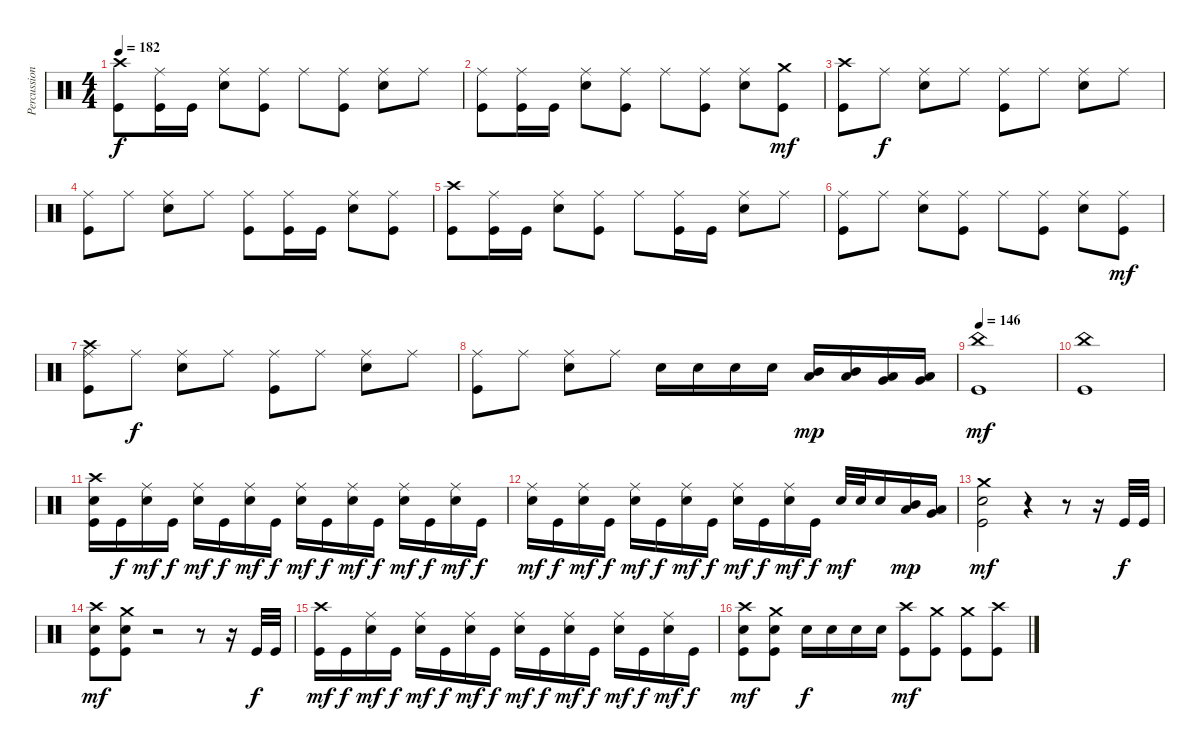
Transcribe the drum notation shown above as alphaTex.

\track ("Percussions" "Percussion") {instrument percussion}
\staff {score}
\articulation defaults
\ts (4 4)
\tempo 182
\clef neutral
\ks c
("Kick (hit)" "Crash high (hit)").8{dy f} ("Kick (hit)" "Ride (middle)").16 "Kick (hit)".16 ("Electric Snare (hit)" "Ride (middle)").8 ("Kick (hit)" "Ride (middle)").8 "Ride (middle)".8 ("Kick (hit)" "Ride (middle)").8 ("Electric Snare (hit)" "Ride (middle)").8 "Ride (middle)".8 |
("Kick (hit)" "Ride (middle)").8 ("Kick (hit)" "Ride (middle)").16 "Kick (hit)".16 ("Electric Snare (hit)" "Ride (middle)").8 ("Kick (hit)" "Ride (middle)").8 "Ride (middle)".8 ("Kick (hit)" "Ride (middle)").8 ("Electric Snare (hit)" "Ride (middle)").8 ("Kick (hit)" "Crash medium (hit)").8{dy mf} |
("Kick (hit)" "Crash high (hit)").8 "Ride (middle)".8{dy f} ("Electric Snare (hit)" "Ride (middle)").8 "Ride (middle)".8 ("Kick (hit)" "Ride (middle)").8 "Ride (middle)".8 ("Electric Snare (hit)" "Ride (middle)").8 "Ride (middle)".8 |
("Kick (hit)" "Ride (middle)").8 "Ride (middle)".8 ("Electric Snare (hit)" "Ride (middle)").8 "Ride (middle)".8 ("Kick (hit)" "Ride (middle)").8 ("Kick (hit)" "Ride (middle)").16 "Kick (hit)".16 ("Electric Snare (hit)" "Ride (middle)").8 ("Kick (hit)" "Ride (middle)").8 |
("Kick (hit)" "Crash high (hit)").8 ("Kick (hit)" "Ride (middle)").16 "Kick (hit)".16 ("Electric Snare (hit)" "Ride (middle)").8 ("Kick (hit)" "Ride (middle)").8 "Ride (middle)".8 ("Kick (hit)" "Ride (middle)").16 "Kick (hit)".16 ("Electric Snare (hit)" "Ride (middle)").8 "Ride (middle)".8 |
("Kick (hit)" "Ride (middle)").8 "Ride (middle)".8 ("Electric Snare (hit)" "Ride (middle)").8 ("Kick (hit)" "Ride (middle)").8 "Ride (middle)".8 ("Kick (hit)" "Ride (middle)").8 ("Electric Snare (hit)" "Ride (middle)").8 ("Kick (hit)" "Ride (middle)").8{dy mf} |
("Kick (hit)" "Ride (middle)" "Crash high (hit)").8 "Ride (middle)".8{dy f} ("Electric Snare (hit)" "Ride (middle)").8 "Ride (middle)".8 ("Kick (hit)" "Ride (middle)").8 "Ride (middle)".8 ("Electric Snare (hit)" "Ride (middle)").8 "Ride (middle)".8 |
("Kick (hit)" "Ride (middle)").8 "Ride (middle)".8 ("Electric Snare (hit)" "Ride (middle)").8 "Ride (middle)".8 "Electric Snare (hit)".16 "Electric Snare (hit)".16 "Electric Snare (hit)".16 "Electric Snare (hit)".16 ("Low Tom (hit)" "Mid Tom (hit)").16{dy mp} ("Low Tom (hit)" "Mid Tom (hit)").16 ("Very Low Tom (hit)" "Low Tom (hit)").16 ("Very Low Tom (hit)" "Low Tom (hit)").16 |
\tempo 146
("Kick (hit)" "China (hit)").1{dy mf} |
("Kick (hit)" "China (hit)").1 |
("Kick (hit)" "Electric Snare (hit)" "Crash high (hit)").16 "Kick (hit)".16{dy f} ("Electric Snare (hit)" "Ride (middle)").16{dy mf} "Kick (hit)".16{dy f} ("Electric Snare (hit)" "Ride (middle)").16{dy mf} "Kick (hit)".16{dy f} ("Electric Snare (hit)" "Ride (middle)").16{dy mf} "Kick (hit)".16{dy f} ("Electric Snare (hit)" "Ride (middle)").16{dy mf} "Kick (hit)".16{dy f} ("Electric Snare (hit)" "Ride (middle)").16{dy mf} "Kick (hit)".16{dy f} ("Electric Snare (hit)" "Ride (middle)").16{dy mf} "Kick (hit)".16{dy f} ("Electric Snare (hit)" "Ride (middle)").16{dy mf} "Kick (hit)".16{dy f} |
("Electric Snare (hit)" "Ride (middle)").16{dy mf} "Kick (hit)".16{dy f} ("Electric Snare (hit)" "Ride (middle)").16{dy mf} "Kick (hit)".16{dy f} ("Electric Snare (hit)" "Ride (middle)").16{dy mf} "Kick (hit)".16{dy f} ("Electric Snare (hit)" "Ride (middle)").16{dy mf} "Kick (hit)".16{dy f} ("Electric Snare (hit)" "Ride (middle)").16{dy mf} "Kick (hit)".16{dy f} ("Electric Snare (hit)" "Ride (middle)").16{dy mf} "Kick (hit)".16{dy f} "Electric Snare (hit)".32{dy mf} "Electric Snare (hit)".32 "Electric Snare (hit)".16 ("Low Tom (hit)" "Mid Tom (hit)").16{dy mp} ("Very Low Tom (hit)" "Low Tom (hit)").16 |
("Kick (hit)" "Electric Snare (hit)" "Crash medium (hit)").2{dy mf} r.4 r.8 r.16 "Kick (hit)".32{dy f} "Kick (hit)".32 |
("Kick (hit)" "Electric Snare (hit)" "Crash high (hit)").8{dy mf} ("Kick (hit)" "Electric Snare (hit)" "Crash medium (hit)").8 r.2 r.8 r.16 "Kick (hit)".32{dy f} "Kick (hit)".32 |
("Kick (hit)" "Crash high (hit)").16{dy mf} "Kick (hit)".16{dy f} ("Electric Snare (hit)" "Ride (middle)").16{dy mf} "Kick (hit)".16{dy f} ("Electric Snare (hit)" "Ride (middle)").16{dy mf} "Kick (hit)".16{dy f} ("Electric Snare (hit)" "Ride (middle)").16{dy mf} "Kick (hit)".16{dy f} ("Electric Snare (hit)" "Ride (middle)").16{dy mf} "Kick (hit)".16{dy f} ("Electric Snare (hit)" "Ride (middle)").16{dy mf} "Kick (hit)".16{dy f} ("Electric Snare (hit)" "Ride (middle)").16{dy mf} "Kick (hit)".16{dy f} ("Electric Snare (hit)" "Ride (middle)").16{dy mf} "Kick (hit)".16{dy f} |
("Kick (hit)" "Electric Snare (hit)" "Crash high (hit)").8{dy mf} ("Kick (hit)" "Electric Snare (hit)" "Crash medium (hit)").8 "Electric Snare (hit)".16{dy f} "Electric Snare (hit)".16 "Electric Snare (hit)".16 "Electric Snare (hit)".16 ("Kick (hit)" "Crash high (hit)").8{dy mf} ("Kick (hit)" "Crash medium (hit)").8 ("Kick (hit)" "Crash medium (hit)").8 ("Kick (hit)" "Crash high (hit)").8
